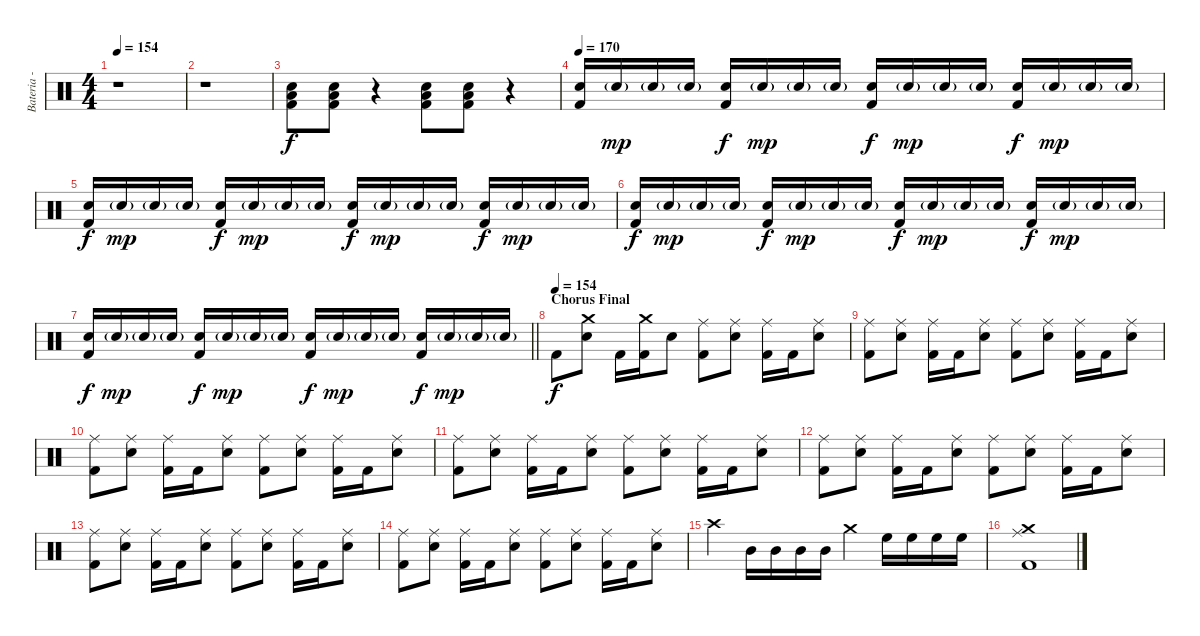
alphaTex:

\track ("Bateria - Larzon " "Bateria - ") {instrument percussion}
\staff {score}
\articulation defaults
\ts (4 4)
\tempo 154
\clef neutral
\ks c
r.1{dy f} |
r.1 |
("Snare (hit) 2" "Kick (hit) 2" "Low Floor Tom (hit)").8 ("Snare (hit) 2" "Kick (hit) 2" "Low Floor Tom (hit)").8 r.4 ("Snare (hit) 2" "Kick (hit) 2" "Low Floor Tom (hit)").8 ("Snare (hit) 2" "Kick (hit) 2" "Low Floor Tom (hit)").8 r.4 |
\tempo 170
("Snare (hit) 2" "Kick (hit) 2").16 "Snare (hit) 2"{g}.16{dy mp} "Snare (hit) 2"{g}.16 "Snare (hit) 2"{g}.16 ("Snare (hit) 2" "Kick (hit) 2").16{dy f} "Snare (hit) 2"{g}.16{dy mp} "Snare (hit) 2"{g}.16 "Snare (hit) 2"{g}.16 ("Snare (hit) 2" "Kick (hit) 2").16{dy f} "Snare (hit) 2"{g}.16{dy mp} "Snare (hit) 2"{g}.16 "Snare (hit) 2"{g}.16 ("Snare (hit) 2" "Kick (hit) 2").16{dy f} "Snare (hit) 2"{g}.16{dy mp} "Snare (hit) 2"{g}.16 "Snare (hit) 2"{g}.16 |
("Snare (hit) 2" "Kick (hit) 2").16{dy f} "Snare (hit) 2"{g}.16{dy mp} "Snare (hit) 2"{g}.16 "Snare (hit) 2"{g}.16 ("Snare (hit) 2" "Kick (hit) 2").16{dy f} "Snare (hit) 2"{g}.16{dy mp} "Snare (hit) 2"{g}.16 "Snare (hit) 2"{g}.16 ("Snare (hit) 2" "Kick (hit) 2").16{dy f} "Snare (hit) 2"{g}.16{dy mp} "Snare (hit) 2"{g}.16 "Snare (hit) 2"{g}.16 ("Snare (hit) 2" "Kick (hit) 2").16{dy f} "Snare (hit) 2"{g}.16{dy mp} "Snare (hit) 2"{g}.16 "Snare (hit) 2"{g}.16 |
("Snare (hit) 2" "Kick (hit) 2").16{dy f} "Snare (hit) 2"{g}.16{dy mp} "Snare (hit) 2"{g}.16 "Snare (hit) 2"{g}.16 ("Snare (hit) 2" "Kick (hit) 2").16{dy f} "Snare (hit) 2"{g}.16{dy mp} "Snare (hit) 2"{g}.16 "Snare (hit) 2"{g}.16 ("Snare (hit) 2" "Kick (hit) 2").16{dy f} "Snare (hit) 2"{g}.16{dy mp} "Snare (hit) 2"{g}.16 "Snare (hit) 2"{g}.16 ("Snare (hit) 2" "Kick (hit) 2").16{dy f} "Snare (hit) 2"{g}.16{dy mp} "Snare (hit) 2"{g}.16 "Snare (hit) 2"{g}.16 |
\barLineRight lightlight
("Snare (hit) 2" "Kick (hit) 2").16{dy f} "Snare (hit) 2"{g}.16{dy mp} "Snare (hit) 2"{g}.16 "Snare (hit) 2"{g}.16 ("Snare (hit) 2" "Kick (hit) 2").16{dy f} "Snare (hit) 2"{g}.16{dy mp} "Snare (hit) 2"{g}.16 "Snare (hit) 2"{g}.16 ("Snare (hit) 2" "Kick (hit) 2").16{dy f} "Snare (hit) 2"{g}.16{dy mp} "Snare (hit) 2"{g}.16 "Snare (hit) 2"{g}.16 ("Snare (hit) 2" "Kick (hit) 2").16{dy f} "Snare (hit) 2"{g}.16{dy mp} "Snare (hit) 2"{g}.16 "Snare (hit) 2"{g}.16 |
\section ("" "Chorus Final")
\tempo (154)
"Kick (hit) 2".8{dy f} ("Snare (hit) 2" "Crash medium (hit)").8 "Kick (hit) 2".16 ("Kick (hit) 2" "Crash medium (hit)").16 "Snare (hit) 2".8 ("Kick (hit) 2" "Ride (middle)").8 ("Snare (hit) 2" "Ride (middle)").8 ("Kick (hit) 2" "Ride (middle)").16 "Kick (hit) 2".16 ("Snare (hit) 2" "Ride (middle)").8 |
("Kick (hit) 2" "Ride (middle)").8 ("Snare (hit) 2" "Ride (middle)").8 ("Kick (hit) 2" "Ride (middle)").16 "Kick (hit) 2".16 ("Snare (hit) 2" "Ride (middle)").8 ("Kick (hit) 2" "Ride (middle)").8 ("Snare (hit) 2" "Ride (middle)").8 ("Kick (hit) 2" "Ride (middle)").16 "Kick (hit) 2".16 ("Snare (hit) 2" "Ride (middle)").8 |
("Kick (hit) 2" "Ride (middle)").8 ("Snare (hit) 2" "Ride (middle)").8 ("Kick (hit) 2" "Ride (middle)").16 "Kick (hit) 2".16 ("Snare (hit) 2" "Ride (middle)").8 ("Kick (hit) 2" "Ride (middle)").8 ("Snare (hit) 2" "Ride (middle)").8 ("Kick (hit) 2" "Ride (middle)").16 "Kick (hit) 2".16 ("Snare (hit) 2" "Ride (middle)").8 |
("Kick (hit) 2" "Ride (middle)").8 ("Snare (hit) 2" "Ride (middle)").8 ("Kick (hit) 2" "Ride (middle)").16 "Kick (hit) 2".16 ("Snare (hit) 2" "Ride (middle)").8 ("Kick (hit) 2" "Ride (middle)").8 ("Snare (hit) 2" "Ride (middle)").8 ("Kick (hit) 2" "Ride (middle)").16 "Kick (hit) 2".16 ("Snare (hit) 2" "Ride (middle)").8 |
("Kick (hit) 2" "Ride (middle)").8 ("Snare (hit) 2" "Ride (middle)").8 ("Kick (hit) 2" "Ride (middle)").16 "Kick (hit) 2".16 ("Snare (hit) 2" "Ride (middle)").8 ("Kick (hit) 2" "Ride (middle)").8 ("Snare (hit) 2" "Ride (middle)").8 ("Kick (hit) 2" "Ride (middle)").16 "Kick (hit) 2".16 ("Snare (hit) 2" "Ride (middle)").8 |
("Kick (hit) 2" "Ride (middle)").8 ("Snare (hit) 2" "Ride (middle)").8 ("Kick (hit) 2" "Ride (middle)").16 "Kick (hit) 2".16 ("Snare (hit) 2" "Ride (middle)").8 ("Kick (hit) 2" "Ride (middle)").8 ("Snare (hit) 2" "Ride (middle)").8 ("Kick (hit) 2" "Ride (middle)").16 "Kick (hit) 2".16 ("Snare (hit) 2" "Ride (middle)").8 |
("Kick (hit) 2" "Ride (middle)").8 ("Snare (hit) 2" "Ride (middle)").8 ("Kick (hit) 2" "Ride (middle)").16 "Kick (hit) 2".16 ("Snare (hit) 2" "Ride (middle)").8 ("Kick (hit) 2" "Ride (middle)").8 ("Snare (hit) 2" "Ride (middle)").8 ("Kick (hit) 2" "Ride (middle)").16 "Kick (hit) 2".16 ("Snare (hit) 2" "Ride (middle)").8 |
"Crash high (hit)".4 "Mid Tom (hit)".16 "Mid Tom (hit)".16 "Mid Tom (hit)".16 "Mid Tom (hit)".16 "Crash medium (hit)".4 "High Floor Tom (hit)".16 "High Floor Tom (hit)".16 "High Floor Tom (hit)".16 "High Floor Tom (hit)".16 |
("Ride (middle)" "Crash medium (hit)" "Kick (hit) 2").1
